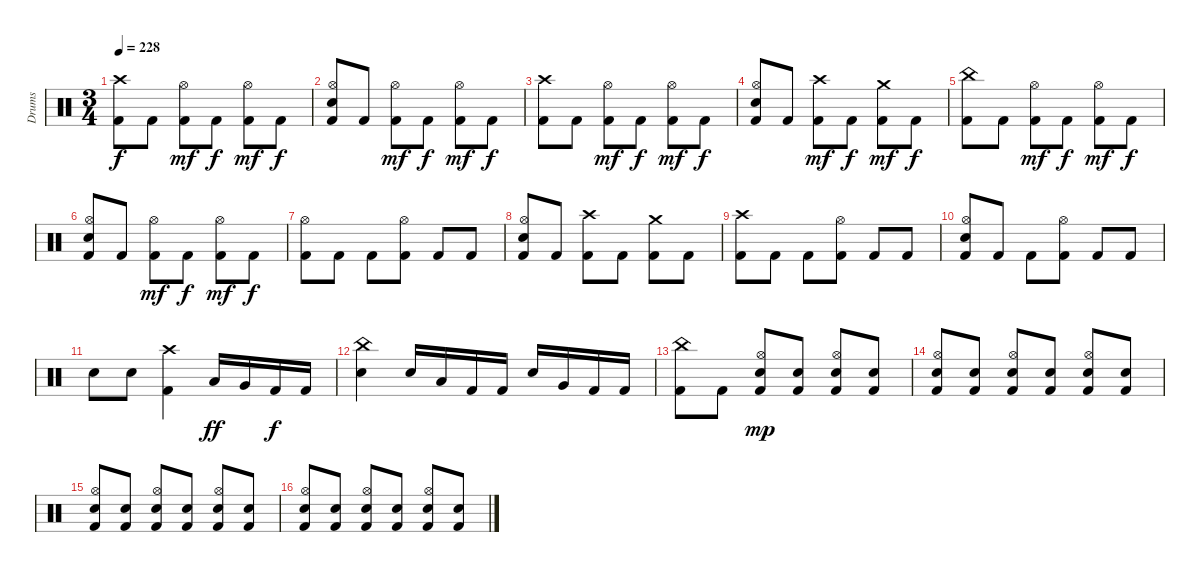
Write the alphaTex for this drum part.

\track ("Drums" "Drums") {instrument percussion}
\staff {score}
\articulation defaults
\ts (3 4)
\tempo 228
\clef neutral
\ks c
("Crash high (hit)" "Kick (hit) 2").8{dy f} "Kick (hit) 2".8 ("Hi-Hat (open)" "Kick (hit) 2").8{dy mf} "Kick (hit) 2".8{dy f} ("Hi-Hat (open)" "Kick (hit) 2").8{dy mf} "Kick (hit) 2".8{dy f} |
("Hi-Hat (open)" "Electric Snare (hit)" "Kick (hit) 2").8 "Kick (hit) 2".8 ("Hi-Hat (open)" "Kick (hit) 2").8{dy mf} "Kick (hit) 2".8{dy f} ("Hi-Hat (open)" "Kick (hit) 2").8{dy mf} "Kick (hit) 2".8{dy f} |
("Crash high (hit)" "Kick (hit) 2").8 "Kick (hit) 2".8 ("Hi-Hat (open)" "Kick (hit) 2").8{dy mf} "Kick (hit) 2".8{dy f} ("Hi-Hat (open)" "Kick (hit) 2").8{dy mf} "Kick (hit) 2".8{dy f} |
("Hi-Hat (open)" "Electric Snare (hit)" "Kick (hit) 2").8 "Kick (hit) 2".8 ("Crash high (hit)" "Kick (hit) 2").8{dy mf} "Kick (hit) 2".8{dy f} ("Crash medium (hit)" "Kick (hit) 2").8{dy mf} "Kick (hit) 2".8{dy f} |
("China (hit)" "Kick (hit) 2").8 "Kick (hit) 2".8 ("Hi-Hat (open)" "Kick (hit) 2").8{dy mf} "Kick (hit) 2".8{dy f} ("Hi-Hat (open)" "Kick (hit) 2").8{dy mf} "Kick (hit) 2".8{dy f} |
("Hi-Hat (open)" "Electric Snare (hit)" "Kick (hit) 2").8 "Kick (hit) 2".8 ("Hi-Hat (open)" "Kick (hit) 2").8{dy mf} "Kick (hit) 2".8{dy f} ("Hi-Hat (open)" "Kick (hit) 2").8{dy mf} "Kick (hit) 2".8{dy f} |
("Hi-Hat (open)" "Kick (hit) 2").8 "Kick (hit) 2".8 "Kick (hit) 2".8 ("Hi-Hat (open)" "Kick (hit) 2").8 "Kick (hit) 2".8 "Kick (hit) 2".8 |
("Hi-Hat (open)" "Electric Snare (hit)" "Kick (hit) 2").8 "Kick (hit) 2".8 ("Crash high (hit)" "Kick (hit) 2").8 "Kick (hit) 2".8 ("Crash medium (hit)" "Kick (hit) 2").8 "Kick (hit) 2".8 |
("Crash high (hit)" "Kick (hit) 2").8 "Kick (hit) 2".8 "Kick (hit) 2".8 ("Hi-Hat (open)" "Kick (hit) 2").8 "Kick (hit) 2".8 "Kick (hit) 2".8 |
("Hi-Hat (open)" "Electric Snare (hit)" "Kick (hit) 2").8 "Kick (hit) 2".8 "Kick (hit) 2".8 ("Hi-Hat (open)" "Kick (hit) 2").8 "Kick (hit) 2".8 "Kick (hit) 2".8 |
"Electric Snare (hit)".8 "Electric Snare (hit)".8 ("Crash high (hit)" "Kick (hit) 2").4 "Low Floor Tom (hit)".16{dy ff} "Very Low Tom (hit)".16 "Kick (hit) 2".16{dy f} "Kick (hit) 2".16 |
("China (hit)" "Electric Snare (hit)").4 "Electric Snare (hit)".16 "Low Tom (hit)".16 "Kick (hit) 2".16 "Kick (hit) 2".16 "Electric Snare (hit)".16 "Very Low Tom (hit)".16 "Kick (hit) 2".16 "Kick (hit) 2".16 |
("China (hit)" "Kick (hit) 2").8 "Kick (hit) 2".8 ("Hi-Hat (open)" "Electric Snare (hit)" "Kick (hit) 2").8{dy mp} ("Electric Snare (hit)" "Kick (hit) 2").8 ("Hi-Hat (open)" "Electric Snare (hit)" "Kick (hit) 2").8 ("Electric Snare (hit)" "Kick (hit) 2").8 |
("Hi-Hat (open)" "Electric Snare (hit)" "Kick (hit) 2").8 ("Electric Snare (hit)" "Kick (hit) 2").8 ("Hi-Hat (open)" "Electric Snare (hit)" "Kick (hit) 2").8 ("Electric Snare (hit)" "Kick (hit) 2").8 ("Hi-Hat (open)" "Electric Snare (hit)" "Kick (hit) 2").8 ("Electric Snare (hit)" "Kick (hit) 2").8 |
("Hi-Hat (open)" "Electric Snare (hit)" "Kick (hit) 2").8 ("Electric Snare (hit)" "Kick (hit) 2").8 ("Hi-Hat (open)" "Electric Snare (hit)" "Kick (hit) 2").8 ("Electric Snare (hit)" "Kick (hit) 2").8 ("Hi-Hat (open)" "Electric Snare (hit)" "Kick (hit) 2").8 ("Electric Snare (hit)" "Kick (hit) 2").8 |
("Hi-Hat (open)" "Electric Snare (hit)" "Kick (hit) 2").8 ("Electric Snare (hit)" "Kick (hit) 2").8 ("Hi-Hat (open)" "Electric Snare (hit)" "Kick (hit) 2").8 ("Electric Snare (hit)" "Kick (hit) 2").8 ("Hi-Hat (open)" "Electric Snare (hit)" "Kick (hit) 2").8 ("Electric Snare (hit)" "Kick (hit) 2").8
